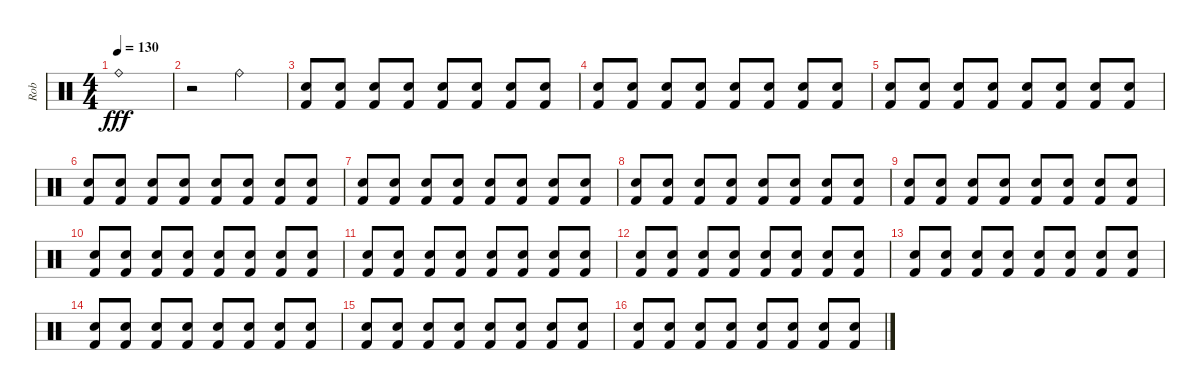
\track ("Rob" "Rob") {instrument percussion}
\staff {score}
\articulation defaults
\ts (4 4)
\tempo 130
\clef neutral
\ks c "Ride (bell)".1{dy fff}
|
r.2 "Ride (bell)".2 |
("Electric Snare (hit)" "Kick (hit) 2").8{volume 9} ("Electric Snare (hit)" "Kick (hit) 2").8 ("Electric Snare (hit)" "Kick (hit) 2").8 ("Electric Snare (hit)" "Kick (hit) 2").8 ("Electric Snare (hit)" "Kick (hit) 2").8 ("Electric Snare (hit)" "Kick (hit) 2").8 ("Electric Snare (hit)" "Kick (hit) 2").8 ("Electric Snare (hit)" "Kick (hit) 2").8 |
("Electric Snare (hit)" "Kick (hit) 2").8 ("Electric Snare (hit)" "Kick (hit) 2").8 ("Electric Snare (hit)" "Kick (hit) 2").8 ("Electric Snare (hit)" "Kick (hit) 2").8 ("Electric Snare (hit)" "Kick (hit) 2").8 ("Electric Snare (hit)" "Kick (hit) 2").8 ("Electric Snare (hit)" "Kick (hit) 2").8 ("Electric Snare (hit)" "Kick (hit) 2").8 |
("Electric Snare (hit)" "Kick (hit) 2").8 ("Electric Snare (hit)" "Kick (hit) 2").8 ("Electric Snare (hit)" "Kick (hit) 2").8 ("Electric Snare (hit)" "Kick (hit) 2").8 ("Electric Snare (hit)" "Kick (hit) 2").8 ("Electric Snare (hit)" "Kick (hit) 2").8 ("Electric Snare (hit)" "Kick (hit) 2").8 ("Electric Snare (hit)" "Kick (hit) 2").8 |
("Electric Snare (hit)" "Kick (hit) 2").8 ("Electric Snare (hit)" "Kick (hit) 2").8 ("Electric Snare (hit)" "Kick (hit) 2").8 ("Electric Snare (hit)" "Kick (hit) 2").8 ("Electric Snare (hit)" "Kick (hit) 2").8 ("Electric Snare (hit)" "Kick (hit) 2").8 ("Electric Snare (hit)" "Kick (hit) 2").8 ("Electric Snare (hit)" "Kick (hit) 2").8 |
("Electric Snare (hit)" "Kick (hit) 2").8{volume 9} ("Electric Snare (hit)" "Kick (hit) 2").8 ("Electric Snare (hit)" "Kick (hit) 2").8 ("Electric Snare (hit)" "Kick (hit) 2").8 ("Electric Snare (hit)" "Kick (hit) 2").8 ("Electric Snare (hit)" "Kick (hit) 2").8 ("Electric Snare (hit)" "Kick (hit) 2").8 ("Electric Snare (hit)" "Kick (hit) 2").8 |
("Electric Snare (hit)" "Kick (hit) 2").8 ("Electric Snare (hit)" "Kick (hit) 2").8 ("Electric Snare (hit)" "Kick (hit) 2").8 ("Electric Snare (hit)" "Kick (hit) 2").8 ("Electric Snare (hit)" "Kick (hit) 2").8 ("Electric Snare (hit)" "Kick (hit) 2").8 ("Electric Snare (hit)" "Kick (hit) 2").8 ("Electric Snare (hit)" "Kick (hit) 2").8 |
("Electric Snare (hit)" "Kick (hit) 2").8 ("Electric Snare (hit)" "Kick (hit) 2").8 ("Electric Snare (hit)" "Kick (hit) 2").8 ("Electric Snare (hit)" "Kick (hit) 2").8 ("Electric Snare (hit)" "Kick (hit) 2").8 ("Electric Snare (hit)" "Kick (hit) 2").8 ("Electric Snare (hit)" "Kick (hit) 2").8 ("Electric Snare (hit)" "Kick (hit) 2").8 |
("Electric Snare (hit)" "Kick (hit) 2").8 ("Electric Snare (hit)" "Kick (hit) 2").8 ("Electric Snare (hit)" "Kick (hit) 2").8 ("Electric Snare (hit)" "Kick (hit) 2").8 ("Electric Snare (hit)" "Kick (hit) 2").8 ("Electric Snare (hit)" "Kick (hit) 2").8 ("Electric Snare (hit)" "Kick (hit) 2").8 ("Electric Snare (hit)" "Kick (hit) 2").8 |
("Electric Snare (hit)" "Kick (hit) 2").8{volume 9} ("Electric Snare (hit)" "Kick (hit) 2").8 ("Electric Snare (hit)" "Kick (hit) 2").8 ("Electric Snare (hit)" "Kick (hit) 2").8 ("Electric Snare (hit)" "Kick (hit) 2").8 ("Electric Snare (hit)" "Kick (hit) 2").8 ("Electric Snare (hit)" "Kick (hit) 2").8 ("Electric Snare (hit)" "Kick (hit) 2").8 |
("Electric Snare (hit)" "Kick (hit) 2").8 ("Electric Snare (hit)" "Kick (hit) 2").8 ("Electric Snare (hit)" "Kick (hit) 2").8 ("Electric Snare (hit)" "Kick (hit) 2").8 ("Electric Snare (hit)" "Kick (hit) 2").8 ("Electric Snare (hit)" "Kick (hit) 2").8 ("Electric Snare (hit)" "Kick (hit) 2").8 ("Electric Snare (hit)" "Kick (hit) 2").8 |
("Electric Snare (hit)" "Kick (hit) 2").8 ("Electric Snare (hit)" "Kick (hit) 2").8 ("Electric Snare (hit)" "Kick (hit) 2").8 ("Electric Snare (hit)" "Kick (hit) 2").8 ("Electric Snare (hit)" "Kick (hit) 2").8 ("Electric Snare (hit)" "Kick (hit) 2").8 ("Electric Snare (hit)" "Kick (hit) 2").8 ("Electric Snare (hit)" "Kick (hit) 2").8 |
("Electric Snare (hit)" "Kick (hit) 2").8 ("Electric Snare (hit)" "Kick (hit) 2").8 ("Electric Snare (hit)" "Kick (hit) 2").8 ("Electric Snare (hit)" "Kick (hit) 2").8 ("Electric Snare (hit)" "Kick (hit) 2").8 ("Electric Snare (hit)" "Kick (hit) 2").8 ("Electric Snare (hit)" "Kick (hit) 2").8 ("Electric Snare (hit)" "Kick (hit) 2").8 |
("Electric Snare (hit)" "Kick (hit) 2").8{volume 9} ("Electric Snare (hit)" "Kick (hit) 2").8 ("Electric Snare (hit)" "Kick (hit) 2").8 ("Electric Snare (hit)" "Kick (hit) 2").8 ("Electric Snare (hit)" "Kick (hit) 2").8 ("Electric Snare (hit)" "Kick (hit) 2").8 ("Electric Snare (hit)" "Kick (hit) 2").8 ("Electric Snare (hit)" "Kick (hit) 2").8 |
("Electric Snare (hit)" "Kick (hit) 2").8 ("Electric Snare (hit)" "Kick (hit) 2").8 ("Electric Snare (hit)" "Kick (hit) 2").8 ("Electric Snare (hit)" "Kick (hit) 2").8 ("Electric Snare (hit)" "Kick (hit) 2").8 ("Electric Snare (hit)" "Kick (hit) 2").8 ("Electric Snare (hit)" "Kick (hit) 2").8 ("Electric Snare (hit)" "Kick (hit) 2").8
